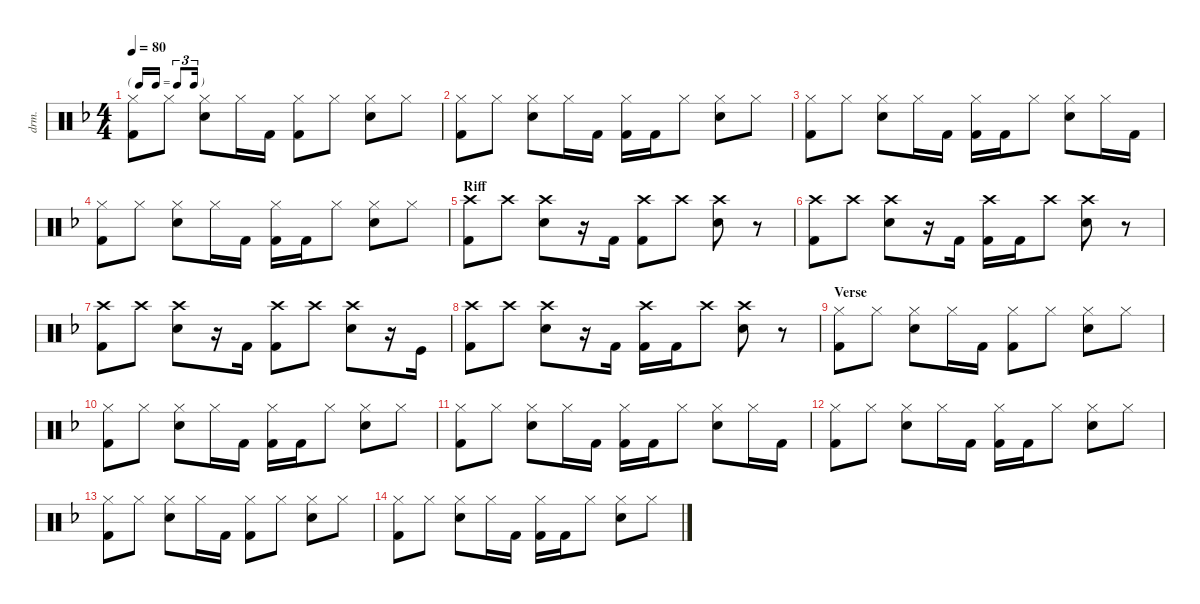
\defaultSystemsLayout 4
\hideDynamics
\bracketExtendMode nobrackets
\otherSystemsTrackNameOrientation horizontal
\track ("Drumkit" "drm.") {instrument percussion}
\staff {score}
\articulation defaults
\ts (4 4)
\tf triplet16th
\tempo 80
\clef neutral
\ks dminor
("Kick (hit) 2"{acc forcenatural} "Hi-Hat (closed)"{acc forcenatural}).8{dy mf beam Down} "Hi-Hat (closed)"{acc forcenatural}.8{beam Down} ("Hi-Hat (closed)"{acc forcenatural} "Snare (hit) 2"{acc forcenatural}).8{beam Down} "Hi-Hat (closed)"{acc forcenatural}.16{beam Down} "Kick (hit) 2"{acc forcenatural}.16{beam Down} ("Hi-Hat (closed)"{acc forcenatural} "Kick (hit) 2"{acc forcenatural}).8{beam Down} "Hi-Hat (closed)"{acc forcenatural}.8{beam Down} ("Hi-Hat (closed)"{acc forcenatural} "Snare (hit) 2"{acc forcenatural}).8{beam Down} "Hi-Hat (closed)"{acc forcenatural}.8{beam Down} |
("Kick (hit) 2"{acc forcenatural} "Hi-Hat (closed)"{acc forcenatural}).8{beam Down} "Hi-Hat (closed)"{acc forcenatural}.8{beam Down} ("Hi-Hat (closed)"{acc forcenatural} "Snare (hit) 2"{acc forcenatural}).8{beam Down} "Hi-Hat (closed)"{acc forcenatural}.16{beam Down} "Kick (hit) 2"{acc forcenatural}.16{beam Down} ("Hi-Hat (closed)"{acc forcenatural} "Kick (hit) 2"{acc forcenatural}).16{beam Down} "Kick (hit) 2"{acc forcenatural}.16{beam Down} "Hi-Hat (closed)"{acc forcenatural}.8{beam Down} ("Snare (hit) 2"{acc forcenatural} "Hi-Hat (closed)"{acc forcenatural}).8{beam Down} "Hi-Hat (closed)"{acc forcenatural}.8{beam Down} |
("Kick (hit) 2"{acc forcenatural} "Hi-Hat (closed)"{acc forcenatural}).8{beam Down} "Hi-Hat (closed)"{acc forcenatural}.8{beam Down} ("Hi-Hat (closed)"{acc forcenatural} "Snare (hit) 2"{acc forcenatural}).8{beam Down} "Hi-Hat (closed)"{acc forcenatural}.16{beam Down} "Kick (hit) 2"{acc forcenatural}.16{beam Down} ("Hi-Hat (closed)"{acc forcenatural} "Kick (hit) 2"{acc forcenatural}).16{beam Down} "Kick (hit) 2"{acc forcenatural}.16{beam Down} "Hi-Hat (closed)"{acc forcenatural}.8{beam Down} ("Hi-Hat (closed)"{acc forcenatural} "Snare (hit) 2"{acc forcenatural}).8{beam Down} "Hi-Hat (closed)"{acc forcenatural}.16{beam Down} "Kick (hit) 2"{acc forcenatural}.16{beam Down} |
("Kick (hit) 2"{acc forcenatural} "Hi-Hat (closed)"{acc forcenatural}).8{beam Down} "Hi-Hat (closed)"{acc forcenatural}.8{beam Down} ("Hi-Hat (closed)"{acc forcenatural} "Snare (hit) 2"{acc forcenatural}).8{beam Down} "Hi-Hat (closed)"{acc forcenatural}.16{beam Down} "Kick (hit) 2"{acc forcenatural}.16{beam Down} ("Hi-Hat (closed)"{acc forcenatural} "Kick (hit) 2"{acc forcenatural}).16{beam Down} "Kick (hit) 2"{acc forcenatural}.16{beam Down} "Hi-Hat (closed)"{acc forcenatural}.8{beam Down} ("Snare (hit) 2"{acc forcenatural} "Hi-Hat (closed)"{acc forcenatural}).8{beam Down} "Hi-Hat (closed)"{acc forcenatural}.8{beam Down} |
\section ("" "Riff")
("Kick (hit) 2"{acc forcenatural} "Crash high (hit)"{acc forcenatural}).8{beam Down} "Crash high (hit)"{acc forcenatural}.8{beam Down} ("Snare (hit) 2"{acc forcenatural} "Crash high (hit)"{acc forcenatural}).8{beam Down} r.16{beam Down} "Kick (hit) 2"{acc forcenatural}.16{beam Down} ("Kick (hit) 2"{acc forcenatural} "Crash high (hit)"{acc forcenatural}).8{beam Down} "Crash high (hit)"{acc forcenatural}.8{beam Down} ("Snare (hit) 2"{acc forcenatural} "Crash high (hit)"{acc forcenatural}).8{beam Down} r.8{beam Down} |
("Kick (hit) 2"{acc forcenatural} "Crash high (hit)"{acc forcenatural}).8{beam Down} "Crash high (hit)"{acc forcenatural}.8{beam Down} ("Snare (hit) 2"{acc forcenatural} "Crash high (hit)"{acc forcenatural}).8{beam Down} r.16{beam Down} "Kick (hit) 2"{acc forcenatural}.16{beam Down} ("Kick (hit) 2"{acc forcenatural} "Crash high (hit)"{acc forcenatural}).16{beam Down} "Kick (hit) 2"{acc forcenatural}.16{beam Down} "Crash high (hit)"{acc forcenatural}.8{beam Down} ("Snare (hit) 2"{acc forcenatural} "Crash high (hit)"{acc forcenatural}).8{beam Down} r.8{beam Down} |
("Kick (hit) 2"{acc forcenatural} "Crash high (hit)"{acc forcenatural}).8{beam Down} "Crash high (hit)"{acc forcenatural}.8{beam Down} ("Snare (hit) 2"{acc forcenatural} "Crash high (hit)"{acc forcenatural}).8{beam Down} r.16{beam Down} "Kick (hit) 2"{acc forcenatural}.16{beam Down} ("Kick (hit) 2"{acc forcenatural} "Crash high (hit)"{acc forcenatural}).8{beam Down} "Crash high (hit)"{acc forcenatural}.8{beam Down} ("Snare (hit) 2"{acc forcenatural} "Crash high (hit)"{acc forcenatural}).8{beam Down} r.16{beam Down} "Kick (hit)"{acc forcenatural}.16{beam Down} |
("Kick (hit) 2"{acc forcenatural} "Crash high (hit)"{acc forcenatural}).8{beam Down} "Crash high (hit)"{acc forcenatural}.8{beam Down} ("Snare (hit) 2"{acc forcenatural} "Crash high (hit)"{acc forcenatural}).8{beam Down} r.16{beam Down} "Kick (hit) 2"{acc forcenatural}.16{beam Down} ("Kick (hit) 2"{acc forcenatural} "Crash high (hit)"{acc forcenatural}).16{beam Down} "Kick (hit) 2"{acc forcenatural}.16{beam Down} "Crash high (hit)"{acc forcenatural}.8{beam Down} ("Snare (hit) 2"{acc forcenatural} "Crash high (hit)"{acc forcenatural}).8{beam Down} r.8{beam Down} |
\section ("" "Verse")
("Kick (hit) 2"{acc forcenatural} "Hi-Hat (closed)"{acc forcenatural}).8{beam Down} "Hi-Hat (closed)"{acc forcenatural}.8{beam Down} ("Hi-Hat (closed)"{acc forcenatural} "Snare (hit) 2"{acc forcenatural}).8{beam Down} "Hi-Hat (closed)"{acc forcenatural}.16{beam Down} "Kick (hit) 2"{acc forcenatural}.16{beam Down} ("Hi-Hat (closed)"{acc forcenatural} "Kick (hit) 2"{acc forcenatural}).8{beam Down} "Hi-Hat (closed)"{acc forcenatural}.8{beam Down} ("Hi-Hat (closed)"{acc forcenatural} "Snare (hit) 2"{acc forcenatural}).8{beam Down} "Hi-Hat (closed)"{acc forcenatural}.8{beam Down} |
("Kick (hit) 2"{acc forcenatural} "Hi-Hat (closed)"{acc forcenatural}).8{beam Down} "Hi-Hat (closed)"{acc forcenatural}.8{beam Down} ("Hi-Hat (closed)"{acc forcenatural} "Snare (hit) 2"{acc forcenatural}).8{beam Down} "Hi-Hat (closed)"{acc forcenatural}.16{beam Down} "Kick (hit) 2"{acc forcenatural}.16{beam Down} ("Hi-Hat (closed)"{acc forcenatural} "Kick (hit) 2"{acc forcenatural}).16{beam Down} "Kick (hit) 2"{acc forcenatural}.16{beam Down} "Hi-Hat (closed)"{acc forcenatural}.8{beam Down} ("Snare (hit) 2"{acc forcenatural} "Hi-Hat (closed)"{acc forcenatural}).8{beam Down} "Hi-Hat (closed)"{acc forcenatural}.8{beam Down} |
("Kick (hit) 2"{acc forcenatural} "Hi-Hat (closed)"{acc forcenatural}).8{beam Down} "Hi-Hat (closed)"{acc forcenatural}.8{beam Down} ("Hi-Hat (closed)"{acc forcenatural} "Snare (hit) 2"{acc forcenatural}).8{beam Down} "Hi-Hat (closed)"{acc forcenatural}.16{beam Down} "Kick (hit) 2"{acc forcenatural}.16{beam Down} ("Hi-Hat (closed)"{acc forcenatural} "Kick (hit) 2"{acc forcenatural}).16{beam Down} "Kick (hit) 2"{acc forcenatural}.16{beam Down} "Hi-Hat (closed)"{acc forcenatural}.8{beam Down} ("Hi-Hat (closed)"{acc forcenatural} "Snare (hit) 2"{acc forcenatural}).8{beam Down} "Hi-Hat (closed)"{acc forcenatural}.16{beam Down} "Kick (hit) 2"{acc forcenatural}.16{beam Down} |
("Kick (hit) 2"{acc forcenatural} "Hi-Hat (closed)"{acc forcenatural}).8{beam Down} "Hi-Hat (closed)"{acc forcenatural}.8{beam Down} ("Hi-Hat (closed)"{acc forcenatural} "Snare (hit) 2"{acc forcenatural}).8{beam Down} "Hi-Hat (closed)"{acc forcenatural}.16{beam Down} "Kick (hit) 2"{acc forcenatural}.16{beam Down} ("Hi-Hat (closed)"{acc forcenatural} "Kick (hit) 2"{acc forcenatural}).16{beam Down} "Kick (hit) 2"{acc forcenatural}.16{beam Down} "Hi-Hat (closed)"{acc forcenatural}.8{beam Down} ("Snare (hit) 2"{acc forcenatural} "Hi-Hat (closed)"{acc forcenatural}).8{beam Down} "Hi-Hat (closed)"{acc forcenatural}.8{beam Down} |
("Kick (hit) 2"{acc forcenatural} "Hi-Hat (closed)"{acc forcenatural}).8{beam Down} "Hi-Hat (closed)"{acc forcenatural}.8{beam Down} ("Hi-Hat (closed)"{acc forcenatural} "Snare (hit) 2"{acc forcenatural}).8{beam Down} "Hi-Hat (closed)"{acc forcenatural}.16{beam Down} "Kick (hit) 2"{acc forcenatural}.16{beam Down} ("Hi-Hat (closed)"{acc forcenatural} "Kick (hit) 2"{acc forcenatural}).8{beam Down} "Hi-Hat (closed)"{acc forcenatural}.8{beam Down} ("Hi-Hat (closed)"{acc forcenatural} "Snare (hit) 2"{acc forcenatural}).8{beam Down} "Hi-Hat (closed)"{acc forcenatural}.8{beam Down} |
("Kick (hit) 2"{acc forcenatural} "Hi-Hat (closed)"{acc forcenatural}).8{beam Down} "Hi-Hat (closed)"{acc forcenatural}.8{beam Down} ("Hi-Hat (closed)"{acc forcenatural} "Snare (hit) 2"{acc forcenatural}).8{beam Down} "Hi-Hat (closed)"{acc forcenatural}.16{beam Down} "Kick (hit) 2"{acc forcenatural}.16{beam Down} ("Hi-Hat (closed)"{acc forcenatural} "Kick (hit) 2"{acc forcenatural}).16{beam Down} "Kick (hit) 2"{acc forcenatural}.16{beam Down} "Hi-Hat (closed)"{acc forcenatural}.8{beam Down} ("Snare (hit) 2"{acc forcenatural} "Hi-Hat (closed)"{acc forcenatural}).8{beam Down} "Hi-Hat (closed)"{acc forcenatural}.8{beam Down}
